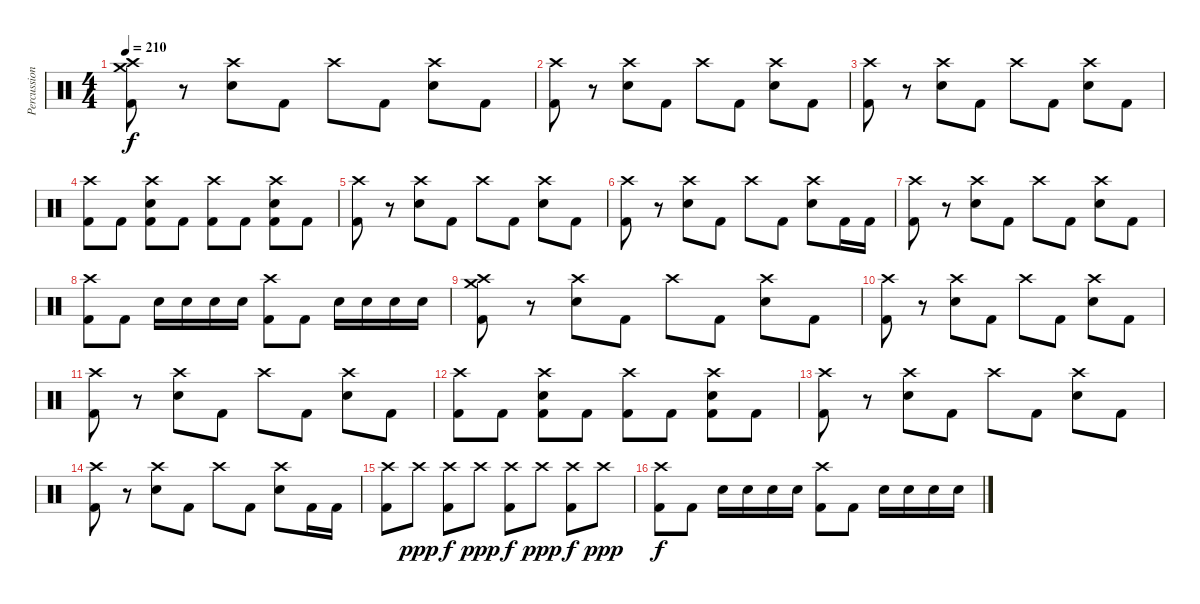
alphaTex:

\track ("Percussion" "Percussion") {instrument percussion}
\staff {score}
\articulation defaults
\ts (4 4)
\tempo 210
\clef neutral
\ks c
("Crash medium (hit)" "Crash high (hit)" "Kick (hit) 2").8{dy f} r.8 ("Crash high (hit)" "Snare (hit) 2").8 "Kick (hit) 2".8 "Crash high (hit)".8 "Kick (hit) 2".8 ("Crash high (hit)" "Snare (hit) 2").8 "Kick (hit) 2".8 |
("Crash high (hit)" "Kick (hit) 2").8 r.8 ("Crash high (hit)" "Snare (hit) 2").8 "Kick (hit) 2".8 "Crash high (hit)".8 "Kick (hit) 2".8 ("Crash high (hit)" "Snare (hit) 2").8 "Kick (hit) 2".8 |
("Crash high (hit)" "Kick (hit) 2").8 r.8 ("Crash high (hit)" "Snare (hit) 2").8 "Kick (hit) 2".8 "Crash high (hit)".8 "Kick (hit) 2".8 ("Crash high (hit)" "Snare (hit) 2").8 "Kick (hit) 2".8 |
("Crash high (hit)" "Kick (hit) 2").8 "Kick (hit) 2".8 ("Crash high (hit)" "Snare (hit) 2" "Kick (hit) 2").8 "Kick (hit) 2".8 ("Crash high (hit)" "Kick (hit) 2").8 "Kick (hit) 2".8 ("Crash high (hit)" "Snare (hit) 2" "Kick (hit) 2").8 "Kick (hit) 2".8 |
("Crash high (hit)" "Kick (hit) 2").8 r.8 ("Crash high (hit)" "Snare (hit) 2").8 "Kick (hit) 2".8 "Crash high (hit)".8 "Kick (hit) 2".8 ("Crash high (hit)" "Snare (hit) 2").8 "Kick (hit) 2".8 |
("Crash high (hit)" "Kick (hit) 2").8 r.8 ("Crash high (hit)" "Snare (hit) 2").8 "Kick (hit) 2".8 "Crash high (hit)".8 "Kick (hit) 2".8 ("Crash high (hit)" "Snare (hit) 2").8 "Kick (hit) 2".16 "Kick (hit) 2".16 |
("Crash high (hit)" "Kick (hit) 2").8 r.8 ("Crash high (hit)" "Snare (hit) 2").8 "Kick (hit) 2".8 "Crash high (hit)".8 "Kick (hit) 2".8 ("Crash high (hit)" "Snare (hit) 2").8 "Kick (hit) 2".8 |
("Crash high (hit)" "Kick (hit) 2").8 "Kick (hit) 2".8 "Snare (hit) 2".16 "Snare (hit) 2".16 "Snare (hit) 2".16 "Snare (hit) 2".16 ("Crash high (hit)" "Kick (hit) 2").8 "Kick (hit) 2".8 "Snare (hit) 2".16 "Snare (hit) 2".16 "Snare (hit) 2".16 "Snare (hit) 2".16 |
("Crash medium (hit)" "Crash high (hit)" "Kick (hit) 2").8 r.8 ("Crash high (hit)" "Snare (hit) 2").8 "Kick (hit) 2".8 "Crash high (hit)".8 "Kick (hit) 2".8 ("Crash high (hit)" "Snare (hit) 2").8 "Kick (hit) 2".8 |
("Crash high (hit)" "Kick (hit) 2").8 r.8 ("Crash high (hit)" "Snare (hit) 2").8 "Kick (hit) 2".8 "Crash high (hit)".8 "Kick (hit) 2".8 ("Crash high (hit)" "Snare (hit) 2").8 "Kick (hit) 2".8 |
("Crash high (hit)" "Kick (hit) 2").8 r.8 ("Crash high (hit)" "Snare (hit) 2").8 "Kick (hit) 2".8 "Crash high (hit)".8 "Kick (hit) 2".8 ("Crash high (hit)" "Snare (hit) 2").8 "Kick (hit) 2".8 |
("Crash high (hit)" "Kick (hit) 2").8 "Kick (hit) 2".8 ("Crash high (hit)" "Snare (hit) 2" "Kick (hit) 2").8 "Kick (hit) 2".8 ("Crash high (hit)" "Kick (hit) 2").8 "Kick (hit) 2".8 ("Crash high (hit)" "Snare (hit) 2" "Kick (hit) 2").8 "Kick (hit) 2".8 |
("Crash high (hit)" "Kick (hit) 2").8 r.8 ("Crash high (hit)" "Snare (hit) 2").8 "Kick (hit) 2".8 "Crash high (hit)".8 "Kick (hit) 2".8 ("Crash high (hit)" "Snare (hit) 2").8 "Kick (hit) 2".8 |
("Crash high (hit)" "Kick (hit) 2").8 r.8 ("Crash high (hit)" "Snare (hit) 2").8 "Kick (hit) 2".8 "Crash high (hit)".8 "Kick (hit) 2".8 ("Crash high (hit)" "Snare (hit) 2").8 "Kick (hit) 2".16 "Kick (hit) 2".16 |
("Crash high (hit)" "Kick (hit) 2").8 "Crash high (hit)".8{dy ppp} ("Crash high (hit)" "Kick (hit) 2").8{dy f} "Crash high (hit)".8{dy ppp} ("Crash high (hit)" "Kick (hit) 2").8{dy f} "Crash high (hit)".8{dy ppp} ("Crash high (hit)" "Kick (hit) 2").8{dy f} "Crash high (hit)".8{dy ppp} |
("Crash high (hit)" "Kick (hit) 2").8{dy f} "Kick (hit) 2".8 "Snare (hit) 2".16 "Snare (hit) 2".16 "Snare (hit) 2".16 "Snare (hit) 2".16 ("Crash high (hit)" "Kick (hit) 2").8 "Kick (hit) 2".8 "Snare (hit) 2".16 "Snare (hit) 2".16 "Snare (hit) 2".16 "Snare (hit) 2".16
